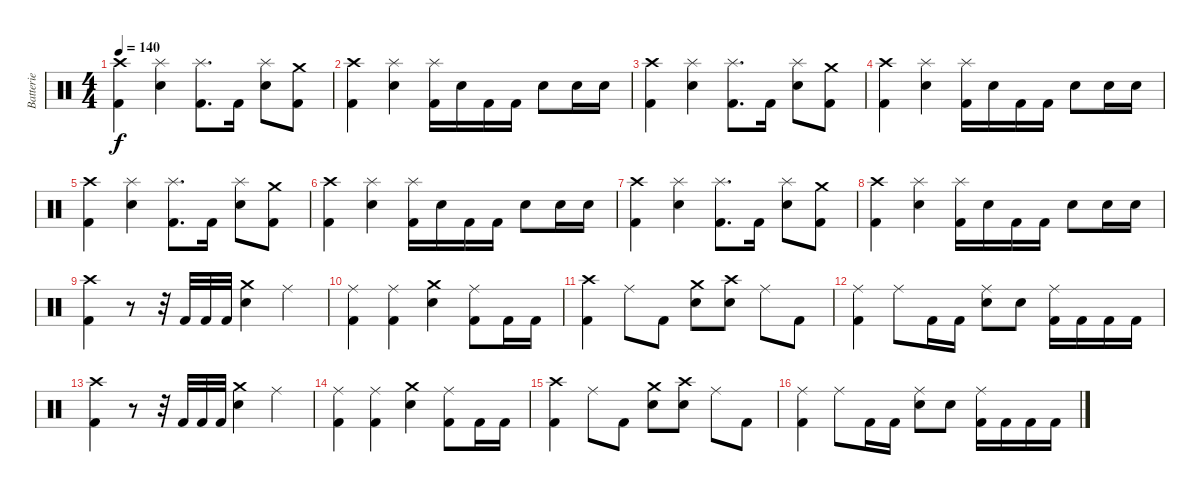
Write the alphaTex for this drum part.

\track ("Batterie" "Batterie") {instrument percussion}
\staff {score}
\articulation defaults
\ts (4 4)
\tempo 140
\clef neutral
\ks c
("Crash high (hit)" "Kick (hit) 2").4{dy f} ("Splash (hit)" "Electric Snare (hit)").4 ("Splash (hit)" "Kick (hit) 2").8{d} "Kick (hit) 2".16 ("Splash (hit)" "Electric Snare (hit)").8 ("Crash medium (hit)" "Kick (hit) 2").8 |
("Crash high (hit)" "Kick (hit) 2").4 ("Splash (hit)" "Electric Snare (hit)").4 ("Splash (hit)" "Kick (hit) 2").16 "Electric Snare (hit)".16 "Kick (hit) 2".16 "Kick (hit) 2".16 "Electric Snare (hit)".8 "Electric Snare (hit)".16 "Electric Snare (hit)".16 |
("Crash high (hit)" "Kick (hit) 2").4 ("Splash (hit)" "Electric Snare (hit)").4 ("Splash (hit)" "Kick (hit) 2").8{d} "Kick (hit) 2".16 ("Splash (hit)" "Electric Snare (hit)").8 ("Crash medium (hit)" "Kick (hit) 2").8 |
("Crash high (hit)" "Kick (hit) 2").4 ("Splash (hit)" "Electric Snare (hit)").4 ("Splash (hit)" "Kick (hit) 2").16 "Electric Snare (hit)".16 "Kick (hit) 2".16 "Kick (hit) 2".16 "Electric Snare (hit)".8 "Electric Snare (hit)".16 "Electric Snare (hit)".16 |
("Crash high (hit)" "Kick (hit) 2").4 ("Splash (hit)" "Electric Snare (hit)").4 ("Splash (hit)" "Kick (hit) 2").8{d} "Kick (hit) 2".16 ("Splash (hit)" "Electric Snare (hit)").8 ("Crash medium (hit)" "Kick (hit) 2").8 |
("Crash high (hit)" "Kick (hit) 2").4 ("Splash (hit)" "Electric Snare (hit)").4 ("Splash (hit)" "Kick (hit) 2").16 "Electric Snare (hit)".16 "Kick (hit) 2".16 "Kick (hit) 2".16 "Electric Snare (hit)".8 "Electric Snare (hit)".16 "Electric Snare (hit)".16 |
("Crash high (hit)" "Kick (hit) 2").4 ("Splash (hit)" "Electric Snare (hit)").4 ("Splash (hit)" "Kick (hit) 2").8{d} "Kick (hit) 2".16 ("Splash (hit)" "Electric Snare (hit)").8 ("Crash medium (hit)" "Kick (hit) 2").8 |
("Crash high (hit)" "Kick (hit) 2").4 ("Splash (hit)" "Electric Snare (hit)").4 ("Splash (hit)" "Kick (hit) 2").16 "Electric Snare (hit)".16 "Kick (hit) 2".16 "Kick (hit) 2".16 "Electric Snare (hit)".8 "Electric Snare (hit)".16 "Electric Snare (hit)".16 |
("Crash high (hit)" "Kick (hit) 2").4 r.8 r.32 "Kick (hit) 2".32 "Kick (hit) 2".32 "Kick (hit) 2".32 ("Crash medium (hit)" "Electric Snare (hit)").4 "Ride (middle)".4 |
("Ride (middle)" "Kick (hit) 2").4 ("Ride (middle)" "Kick (hit) 2").4 ("Crash medium (hit)" "Electric Snare (hit)").4 ("Ride (middle)" "Kick (hit) 2").8 "Kick (hit) 2".16 "Kick (hit) 2".16 |
("Crash high (hit)" "Kick (hit) 2").4 "Ride (middle)".8 "Kick (hit) 2".8 ("Crash medium (hit)" "Electric Snare (hit)").8 ("Crash high (hit)" "Electric Snare (hit)").8 "Ride (middle)".8 "Kick (hit) 2".8 |
("Ride (middle)" "Kick (hit) 2").4 "Ride (middle)".8 "Kick (hit) 2".16 "Kick (hit) 2".16 ("Ride (middle)" "Electric Snare (hit)").8 "Electric Snare (hit)".8 ("Ride (middle)" "Kick (hit) 2").16 "Kick (hit) 2".16 "Kick (hit) 2".16 "Kick (hit) 2".16 |
("Crash high (hit)" "Kick (hit) 2").4 r.8 r.32 "Kick (hit) 2".32 "Kick (hit) 2".32 "Kick (hit) 2".32 ("Crash medium (hit)" "Electric Snare (hit)").4 "Ride (middle)".4 |
("Ride (middle)" "Kick (hit) 2").4 ("Ride (middle)" "Kick (hit) 2").4 ("Crash medium (hit)" "Electric Snare (hit)").4 ("Ride (middle)" "Kick (hit) 2").8 "Kick (hit) 2".16 "Kick (hit) 2".16 |
("Crash high (hit)" "Kick (hit) 2").4 "Ride (middle)".8 "Kick (hit) 2".8 ("Crash medium (hit)" "Electric Snare (hit)").8 ("Crash high (hit)" "Electric Snare (hit)").8 "Ride (middle)".8 "Kick (hit) 2".8 |
("Ride (middle)" "Kick (hit) 2").4 "Ride (middle)".8 "Kick (hit) 2".16 "Kick (hit) 2".16 ("Ride (middle)" "Electric Snare (hit)").8 "Electric Snare (hit)".8 ("Ride (middle)" "Kick (hit) 2").16 "Kick (hit) 2".16 "Kick (hit) 2".16 "Kick (hit) 2".16
